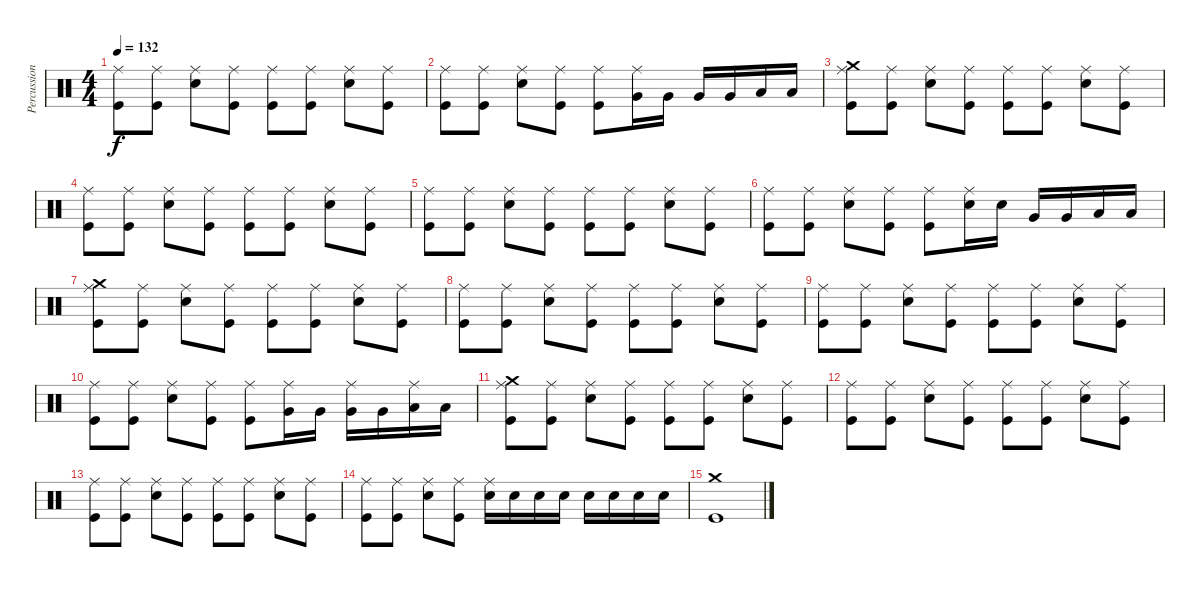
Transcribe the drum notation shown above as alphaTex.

\track ("Percussions" "Percussion") {instrument percussion}
\staff {score}
\articulation defaults
\ts (4 4)
\tempo 132
\clef neutral
\ks c
("Ride (middle)" "Kick (hit)").8{dy f} ("Ride (middle)" "Kick (hit)").8 ("Ride (middle)" "Snare (hit) 2").8 ("Ride (middle)" "Kick (hit)").8 ("Ride (middle)" "Kick (hit)").8 ("Ride (middle)" "Kick (hit)").8 ("Ride (middle)" "Snare (hit) 2").8 ("Ride (middle)" "Kick (hit)").8 |
("Ride (middle)" "Kick (hit)").8 ("Ride (middle)" "Kick (hit)").8 ("Ride (middle)" "Snare (hit) 2").8 ("Ride (middle)" "Kick (hit)").8 ("Ride (middle)" "Kick (hit)").8 ("Ride (middle)" "Very Low Tom (hit)").16 "Very Low Tom (hit)".16 "Very Low Tom (hit)".16 "Very Low Tom (hit)".16 "Low Floor Tom (hit)".16 "Low Floor Tom (hit)".16 |
("Ride (middle)" "Crash medium (hit)" "Kick (hit)").8 ("Ride (middle)" "Kick (hit)").8 ("Ride (middle)" "Snare (hit) 2").8 ("Ride (middle)" "Kick (hit)").8 ("Ride (middle)" "Kick (hit)").8 ("Ride (middle)" "Kick (hit)").8 ("Ride (middle)" "Snare (hit) 2").8 ("Ride (middle)" "Kick (hit)").8 |
("Ride (middle)" "Kick (hit)").8 ("Ride (middle)" "Kick (hit)").8 ("Ride (middle)" "Snare (hit) 2").8 ("Ride (middle)" "Kick (hit)").8 ("Ride (middle)" "Kick (hit)").8 ("Ride (middle)" "Kick (hit)").8 ("Ride (middle)" "Snare (hit) 2").8 ("Ride (middle)" "Kick (hit)").8 |
("Ride (middle)" "Kick (hit)").8 ("Ride (middle)" "Kick (hit)").8 ("Ride (middle)" "Snare (hit) 2").8 ("Ride (middle)" "Kick (hit)").8 ("Ride (middle)" "Kick (hit)").8 ("Ride (middle)" "Kick (hit)").8 ("Ride (middle)" "Snare (hit) 2").8 ("Ride (middle)" "Kick (hit)").8 |
("Ride (middle)" "Kick (hit)").8 ("Ride (middle)" "Kick (hit)").8 ("Ride (middle)" "Snare (hit) 2").8 ("Ride (middle)" "Kick (hit)").8 ("Ride (middle)" "Kick (hit)").8 ("Ride (middle)" "Snare (hit) 2").16 "Snare (hit) 2".16 "Very Low Tom (hit)".16 "Very Low Tom (hit)".16 "Low Floor Tom (hit)".16 "Low Floor Tom (hit)".16 |
("Ride (middle)" "Crash medium (hit)" "Kick (hit)").8 ("Ride (middle)" "Kick (hit)").8 ("Ride (middle)" "Snare (hit) 2").8 ("Ride (middle)" "Kick (hit)").8 ("Ride (middle)" "Kick (hit)").8 ("Ride (middle)" "Kick (hit)").8 ("Ride (middle)" "Snare (hit) 2").8 ("Ride (middle)" "Kick (hit)").8 |
("Ride (middle)" "Kick (hit)").8 ("Ride (middle)" "Kick (hit)").8 ("Ride (middle)" "Snare (hit) 2").8 ("Ride (middle)" "Kick (hit)").8 ("Ride (middle)" "Kick (hit)").8 ("Ride (middle)" "Kick (hit)").8 ("Ride (middle)" "Snare (hit) 2").8 ("Ride (middle)" "Kick (hit)").8 |
("Ride (middle)" "Kick (hit)").8 ("Ride (middle)" "Kick (hit)").8 ("Ride (middle)" "Snare (hit) 2").8 ("Ride (middle)" "Kick (hit)").8 ("Ride (middle)" "Kick (hit)").8 ("Ride (middle)" "Kick (hit)").8 ("Ride (middle)" "Snare (hit) 2").8 ("Ride (middle)" "Kick (hit)").8 |
("Ride (middle)" "Kick (hit)").8 ("Ride (middle)" "Kick (hit)").8 ("Ride (middle)" "Snare (hit) 2").8 ("Ride (middle)" "Kick (hit)").8 ("Ride (middle)" "Kick (hit)").8 ("Ride (middle)" "Very Low Tom (hit)").16 "Very Low Tom (hit)".16 ("Ride (middle)" "Very Low Tom (hit)").16 "Very Low Tom (hit)".16 ("Ride (middle)" "Low Floor Tom (hit)").16 "Low Floor Tom (hit)".16 |
("Ride (middle)" "Crash medium (hit)" "Kick (hit)").8 ("Ride (middle)" "Kick (hit)").8 ("Ride (middle)" "Snare (hit) 2").8 ("Ride (middle)" "Kick (hit)").8 ("Ride (middle)" "Kick (hit)").8 ("Ride (middle)" "Kick (hit)").8 ("Ride (middle)" "Snare (hit) 2").8 ("Ride (middle)" "Kick (hit)").8 |
("Ride (middle)" "Kick (hit)").8 ("Ride (middle)" "Kick (hit)").8 ("Ride (middle)" "Snare (hit) 2").8 ("Ride (middle)" "Kick (hit)").8 ("Ride (middle)" "Kick (hit)").8 ("Ride (middle)" "Kick (hit)").8 ("Ride (middle)" "Snare (hit) 2").8 ("Ride (middle)" "Kick (hit)").8 |
("Ride (middle)" "Kick (hit)").8 ("Ride (middle)" "Kick (hit)").8 ("Ride (middle)" "Snare (hit) 2").8 ("Ride (middle)" "Kick (hit)").8 ("Ride (middle)" "Kick (hit)").8 ("Ride (middle)" "Kick (hit)").8 ("Ride (middle)" "Snare (hit) 2").8 ("Ride (middle)" "Kick (hit)").8 |
("Ride (middle)" "Kick (hit)").8 ("Ride (middle)" "Kick (hit)").8 ("Ride (middle)" "Snare (hit) 2").8 ("Ride (middle)" "Kick (hit)").8 ("Ride (middle)" "Snare (hit) 2").16 "Snare (hit) 2".16 "Snare (hit) 2".16 "Snare (hit) 2".16 "Snare (hit) 2".16 "Snare (hit) 2".16 "Snare (hit) 2".16 "Snare (hit) 2".16 |
("Crash medium (hit)" "Kick (hit)").1
